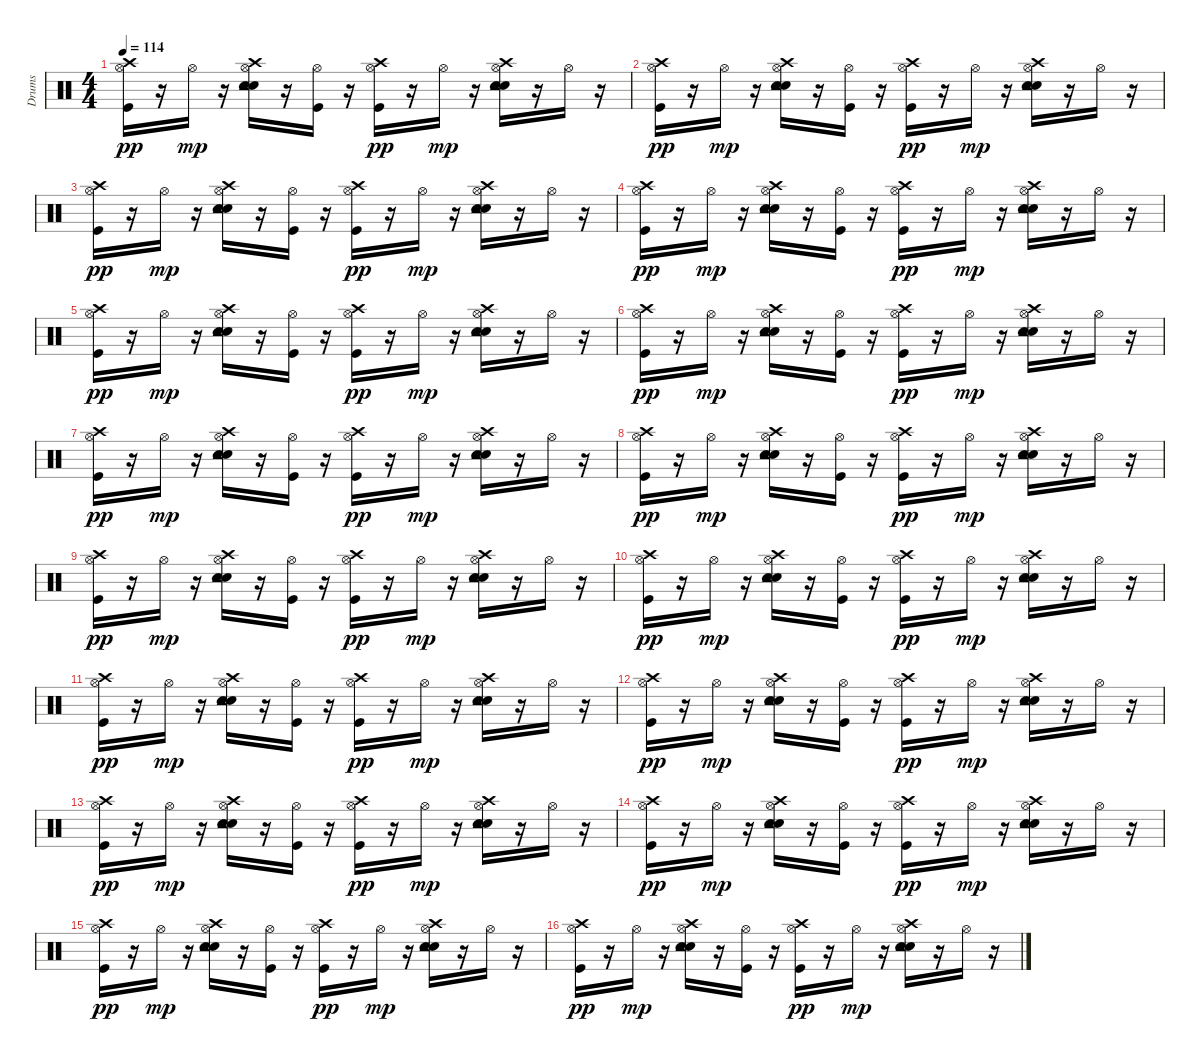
\track ("Drums" "Drums") {instrument percussion}
\staff {score}
\articulation defaults
\ts (4 4)
\tempo 114
\clef neutral
\ks c
("Kick (hit)" "Hi-Hat (open)" "Crash high (hit)").16{dy pp} r.16 "Hi-Hat (open)".16{dy mp} r.16 ("Metronome (bell)" "Electric Snare (hit)" "Hi-Hat (open)" "Crash high (hit)" "Tambourine (hit)").16 r.16 ("Kick (hit)" "Hi-Hat (open)").16 r.16 ("Kick (hit)" "Hi-Hat (open)" "Crash high (hit)").16{dy pp} r.16 "Hi-Hat (open)".16{dy mp} r.16 ("Metronome (bell)" "Electric Snare (hit)" "Hi-Hat (open)" "Crash high (hit)" "Tambourine (hit)").16 r.16 "Hi-Hat (open)".16 r.16 |
("Kick (hit)" "Hi-Hat (open)" "Crash high (hit)").16{dy pp} r.16 "Hi-Hat (open)".16{dy mp} r.16 ("Metronome (bell)" "Electric Snare (hit)" "Hi-Hat (open)" "Crash high (hit)" "Tambourine (hit)").16 r.16 ("Kick (hit)" "Hi-Hat (open)").16 r.16 ("Kick (hit)" "Hi-Hat (open)" "Crash high (hit)").16{dy pp} r.16 "Hi-Hat (open)".16{dy mp} r.16 ("Metronome (bell)" "Hi-Hat (open)" "Electric Snare (hit)" "Crash high (hit)" "Tambourine (hit)").16 r.16 "Hi-Hat (open)".16 r.16 |
("Kick (hit)" "Hi-Hat (open)" "Crash high (hit)").16{dy pp} r.16 "Hi-Hat (open)".16{dy mp} r.16 ("Metronome (bell)" "Hi-Hat (open)" "Electric Snare (hit)" "Crash high (hit)" "Tambourine (hit)").16 r.16 ("Kick (hit)" "Hi-Hat (open)").16 r.16 ("Kick (hit)" "Hi-Hat (open)" "Crash high (hit)").16{dy pp} r.16 "Hi-Hat (open)".16{dy mp} r.16 ("Metronome (bell)" "Hi-Hat (open)" "Electric Snare (hit)" "Crash high (hit)" "Tambourine (hit)").16 r.16 "Hi-Hat (open)".16 r.16 |
("Kick (hit)" "Hi-Hat (open)" "Crash high (hit)").16{dy pp} r.16 "Hi-Hat (open)".16{dy mp} r.16 ("Electric Snare (hit)" "Metronome (bell)" "Hi-Hat (open)" "Crash high (hit)" "Tambourine (hit)").16 r.16 ("Kick (hit)" "Hi-Hat (open)").16 r.16 ("Kick (hit)" "Hi-Hat (open)" "Crash high (hit)").16{dy pp} r.16 "Hi-Hat (open)".16{dy mp} r.16 ("Metronome (bell)" "Electric Snare (hit)" "Hi-Hat (open)" "Crash high (hit)" "Tambourine (hit)").16 r.16 "Hi-Hat (open)".16 r.16 |
("Kick (hit)" "Hi-Hat (open)" "Crash high (hit)").16{dy pp} r.16 "Hi-Hat (open)".16{dy mp} r.16 ("Metronome (bell)" "Electric Snare (hit)" "Hi-Hat (open)" "Crash high (hit)" "Tambourine (hit)").16 r.16 ("Kick (hit)" "Hi-Hat (open)").16 r.16 ("Kick (hit)" "Hi-Hat (open)" "Crash high (hit)").16{dy pp} r.16 "Hi-Hat (open)".16{dy mp} r.16 ("Metronome (bell)" "Electric Snare (hit)" "Hi-Hat (open)" "Crash high (hit)" "Tambourine (hit)").16 r.16 "Hi-Hat (open)".16 r.16 |
("Kick (hit)" "Hi-Hat (open)" "Crash high (hit)").16{dy pp} r.16 "Hi-Hat (open)".16{dy mp} r.16 ("Metronome (bell)" "Electric Snare (hit)" "Hi-Hat (open)" "Crash high (hit)" "Tambourine (hit)").16 r.16 ("Kick (hit)" "Hi-Hat (open)").16 r.16 ("Kick (hit)" "Hi-Hat (open)" "Crash high (hit)").16{dy pp} r.16 "Hi-Hat (open)".16{dy mp} r.16 ("Metronome (bell)" "Electric Snare (hit)" "Hi-Hat (open)" "Crash high (hit)" "Tambourine (hit)").16 r.16 "Hi-Hat (open)".16 r.16 |
("Kick (hit)" "Hi-Hat (open)" "Crash high (hit)").16{dy pp} r.16 "Hi-Hat (open)".16{dy mp} r.16 ("Metronome (bell)" "Electric Snare (hit)" "Hi-Hat (open)" "Crash high (hit)" "Tambourine (hit)").16 r.16 ("Kick (hit)" "Hi-Hat (open)").16 r.16 ("Kick (hit)" "Hi-Hat (open)" "Crash high (hit)").16{dy pp} r.16 "Hi-Hat (open)".16{dy mp} r.16 ("Metronome (bell)" "Electric Snare (hit)" "Hi-Hat (open)" "Crash high (hit)" "Tambourine (hit)").16 r.16 "Hi-Hat (open)".16 r.16 |
("Kick (hit)" "Hi-Hat (open)" "Crash high (hit)").16{dy pp} r.16 "Hi-Hat (open)".16{dy mp} r.16 ("Metronome (bell)" "Electric Snare (hit)" "Hi-Hat (open)" "Crash high (hit)" "Tambourine (hit)").16 r.16 ("Kick (hit)" "Hi-Hat (open)").16 r.16 ("Kick (hit)" "Hi-Hat (open)" "Crash high (hit)").16{dy pp} r.16 "Hi-Hat (open)".16{dy mp} r.16 ("Metronome (bell)" "Electric Snare (hit)" "Hi-Hat (open)" "Crash high (hit)" "Tambourine (hit)").16 r.16 "Hi-Hat (open)".16 r.16 |
("Kick (hit)" "Hi-Hat (open)" "Crash high (hit)").16{dy pp} r.16 "Hi-Hat (open)".16{dy mp} r.16 ("Metronome (bell)" "Electric Snare (hit)" "Hi-Hat (open)" "Crash high (hit)" "Tambourine (hit)").16 r.16 ("Kick (hit)" "Hi-Hat (open)").16 r.16 ("Kick (hit)" "Hi-Hat (open)" "Crash high (hit)").16{dy pp} r.16 "Hi-Hat (open)".16{dy mp} r.16 ("Metronome (bell)" "Electric Snare (hit)" "Hi-Hat (open)" "Crash high (hit)" "Tambourine (hit)").16 r.16 "Hi-Hat (open)".16 r.16 |
("Kick (hit)" "Hi-Hat (open)" "Crash high (hit)").16{dy pp} r.16 "Hi-Hat (open)".16{dy mp} r.16 ("Metronome (bell)" "Electric Snare (hit)" "Hi-Hat (open)" "Crash high (hit)" "Tambourine (hit)").16 r.16 ("Kick (hit)" "Hi-Hat (open)").16 r.16 ("Kick (hit)" "Hi-Hat (open)" "Crash high (hit)").16{dy pp} r.16 "Hi-Hat (open)".16{dy mp} r.16 ("Metronome (bell)" "Electric Snare (hit)" "Hi-Hat (open)" "Crash high (hit)" "Tambourine (hit)").16 r.16 "Hi-Hat (open)".16 r.16 |
("Kick (hit)" "Hi-Hat (open)" "Crash high (hit)").16{dy pp} r.16 "Hi-Hat (open)".16{dy mp} r.16 ("Metronome (bell)" "Electric Snare (hit)" "Hi-Hat (open)" "Crash high (hit)" "Tambourine (hit)").16 r.16 ("Kick (hit)" "Hi-Hat (open)").16 r.16 ("Kick (hit)" "Hi-Hat (open)" "Crash high (hit)").16{dy pp} r.16 "Hi-Hat (open)".16{dy mp} r.16 ("Metronome (bell)" "Electric Snare (hit)" "Hi-Hat (open)" "Crash high (hit)" "Tambourine (hit)").16 r.16 "Hi-Hat (open)".16 r.16 |
("Kick (hit)" "Hi-Hat (open)" "Crash high (hit)").16{dy pp} r.16 "Hi-Hat (open)".16{dy mp} r.16 ("Metronome (bell)" "Electric Snare (hit)" "Hi-Hat (open)" "Crash high (hit)" "Tambourine (hit)").16 r.16 ("Kick (hit)" "Hi-Hat (open)").16 r.16 ("Kick (hit)" "Hi-Hat (open)" "Crash high (hit)").16{dy pp} r.16 "Hi-Hat (open)".16{dy mp} r.16 ("Metronome (bell)" "Electric Snare (hit)" "Hi-Hat (open)" "Crash high (hit)" "Tambourine (hit)").16 r.16 "Hi-Hat (open)".16 r.16 |
("Kick (hit)" "Hi-Hat (open)" "Crash high (hit)").16{dy pp} r.16 "Hi-Hat (open)".16{dy mp} r.16 ("Metronome (bell)" "Electric Snare (hit)" "Hi-Hat (open)" "Crash high (hit)" "Tambourine (hit)").16 r.16 ("Kick (hit)" "Hi-Hat (open)").16 r.16 ("Kick (hit)" "Hi-Hat (open)" "Crash high (hit)").16{dy pp} r.16 "Hi-Hat (open)".16{dy mp} r.16 ("Metronome (bell)" "Electric Snare (hit)" "Hi-Hat (open)" "Crash high (hit)" "Tambourine (hit)").16 r.16 "Hi-Hat (open)".16 r.16 |
("Kick (hit)" "Hi-Hat (open)" "Crash high (hit)").16{dy pp} r.16 "Hi-Hat (open)".16{dy mp} r.16 ("Metronome (bell)" "Electric Snare (hit)" "Hi-Hat (open)" "Crash high (hit)" "Tambourine (hit)").16 r.16 ("Kick (hit)" "Hi-Hat (open)").16 r.16 ("Kick (hit)" "Hi-Hat (open)" "Crash high (hit)").16{dy pp} r.16 "Hi-Hat (open)".16{dy mp} r.16 ("Metronome (bell)" "Electric Snare (hit)" "Hi-Hat (open)" "Crash high (hit)" "Tambourine (hit)").16 r.16 "Hi-Hat (open)".16 r.16 |
("Kick (hit)" "Hi-Hat (open)" "Crash high (hit)").16{dy pp} r.16 "Hi-Hat (open)".16{dy mp} r.16 ("Metronome (bell)" "Electric Snare (hit)" "Hi-Hat (open)" "Crash high (hit)" "Tambourine (hit)").16 r.16 ("Kick (hit)" "Hi-Hat (open)").16 r.16 ("Kick (hit)" "Hi-Hat (open)" "Crash high (hit)").16{dy pp} r.16 "Hi-Hat (open)".16{dy mp} r.16 ("Metronome (bell)" "Electric Snare (hit)" "Hi-Hat (open)" "Crash high (hit)" "Tambourine (hit)").16 r.16 "Hi-Hat (open)".16 r.16 |
("Kick (hit)" "Hi-Hat (open)" "Crash high (hit)").16{dy pp} r.16 "Hi-Hat (open)".16{dy mp} r.16 ("Metronome (bell)" "Electric Snare (hit)" "Hi-Hat (open)" "Crash high (hit)" "Tambourine (hit)").16 r.16 ("Kick (hit)" "Hi-Hat (open)").16 r.16 ("Kick (hit)" "Hi-Hat (open)" "Crash high (hit)").16{dy pp} r.16 "Hi-Hat (open)".16{dy mp} r.16 ("Metronome (bell)" "Electric Snare (hit)" "Hi-Hat (open)" "Crash high (hit)" "Tambourine (hit)").16 r.16 "Hi-Hat (open)".16 r.16
